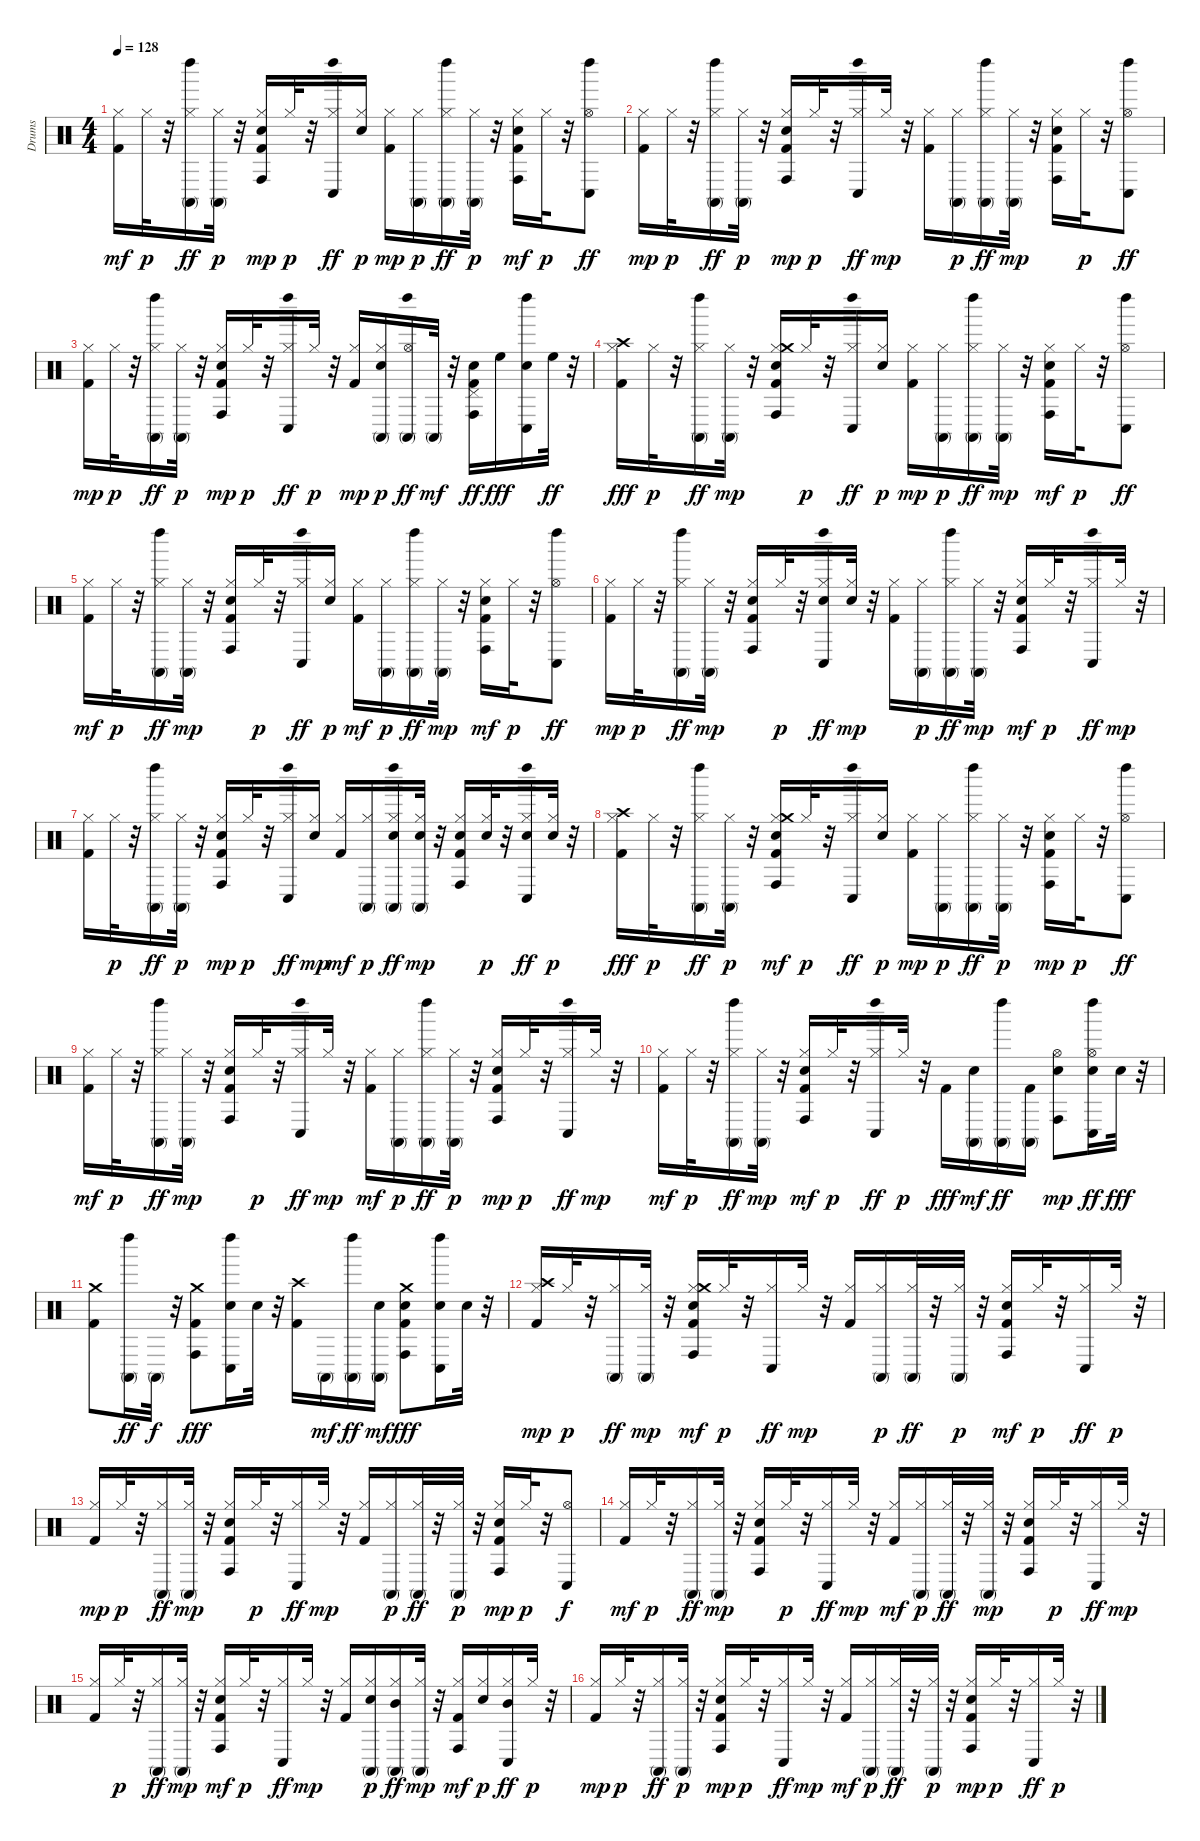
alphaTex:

\track ("Drums" "Drums") {instrument percussion}
\staff {score}
\articulation defaults
\ts (4 4)
\tempo 128
\clef neutral
\ks c
("Kick (hit) 2" "Hi-Hat (closed)").16{dy mf} "Hi-Hat (closed)".32{dy p} r.32 ("Conga high (mute)" "Left Maraca (hit)" "Hi-Hat (closed)").16{dy ff} ("Conga high (mute)" "Hi-Hat (closed)").32{dy p} r.32 ("Kick (hit) 2" "Conga high (hit)" "Electric Snare (hit)" "Hi-Hat (closed)").16{dy mp} "Hi-Hat (closed)".32{dy p} r.32 ("Conga low (hit)" "Left Maraca (hit)" "Hi-Hat (closed)").16{dy ff} ("Electric Snare (hit)" "Hi-Hat (closed)").16{dy p} ("Kick (hit) 2" "Hi-Hat (closed)").16{dy mp} ("Conga high (mute)" "Hi-Hat (closed)").16{dy p} ("Conga high (mute)" "Left Maraca (hit)" "Hi-Hat (closed)").16{dy ff} ("Conga high (mute)" "Hi-Hat (closed)").32{dy p} r.32 ("Kick (hit) 2" "Conga high (hit)" "Electric Snare (hit)" "Hi-Hat (closed)").16{dy mf} "Hi-Hat (closed)".32{dy p} r.32 ("Conga low (hit)" "Left Maraca (hit)" "Hi-Hat (open)").8{dy ff} |
("Kick (hit) 2" "Hi-Hat (closed)").16{dy mp} "Hi-Hat (closed)".32{dy p} r.32 ("Conga high (mute)" "Left Maraca (hit)" "Hi-Hat (closed)").16{dy ff} ("Conga high (mute)" "Hi-Hat (closed)").32{dy p} r.32 ("Kick (hit) 2" "Conga high (hit)" "Electric Snare (hit)" "Hi-Hat (closed)").16{dy mp} "Hi-Hat (closed)".32{dy p} r.32 ("Conga low (hit)" "Left Maraca (hit)" "Hi-Hat (closed)").16{dy ff} "Hi-Hat (closed)".32{dy mp} r.32 ("Kick (hit) 2" "Hi-Hat (closed)").16 ("Conga high (mute)" "Hi-Hat (closed)").16{dy p} ("Conga high (mute)" "Left Maraca (hit)" "Hi-Hat (closed)").16{dy ff} ("Conga high (mute)" "Hi-Hat (closed)").32{dy mp} r.32 ("Kick (hit) 2" "Conga high (hit)" "Electric Snare (hit)" "Hi-Hat (closed)").16 "Hi-Hat (closed)".32{dy p} r.32 ("Conga low (hit)" "Left Maraca (hit)" "Hi-Hat (open)").8{dy ff} |
("Kick (hit) 2" "Hi-Hat (closed)").16{dy mp} "Hi-Hat (closed)".32{dy p} r.32 ("Conga high (mute)" "Left Maraca (hit)" "Hi-Hat (closed)").16{dy ff} ("Conga high (mute)" "Hi-Hat (closed)").32{dy p} r.32 ("Kick (hit) 2" "Conga high (hit)" "Electric Snare (hit)" "Hi-Hat (closed)").16{dy mp} "Hi-Hat (closed)".32{dy p} r.32 ("Conga low (hit)" "Left Maraca (hit)" "Hi-Hat (closed)").16{dy ff} "Hi-Hat (closed)".32{dy p} r.32 ("Kick (hit) 2" "Hi-Hat (closed)").16{dy mp} ("Conga high (mute)" "Electric Snare (hit)" "Hi-Hat (closed)").16{dy p} ("Conga high (mute)" "Left Maraca (hit)" "Hi-Hat (open)").16{dy ff} "Conga high (mute)".32{dy mf} r.32 ("Kick (hit) 2" "Conga high (hit)" "Pedal Hi-Hat (hit)" "Electric Snare (hit)").16{dy ff} "High Floor Tom (hit)".16{dy fff} ("Conga low (hit)" "Left Maraca (hit)" "Electric Snare (hit)").16 "High Floor Tom (hit)".32{dy ff} r.32 |
("Kick (hit) 2" "Hi-Hat (closed)" "Crash high (hit)").16{dy fff} "Hi-Hat (closed)".32{dy p} r.32 ("Conga high (mute)" "Left Maraca (hit)" "Hi-Hat (closed)").16{dy ff} ("Conga high (mute)" "Hi-Hat (closed)").32{dy mp} r.32 ("Kick (hit) 2" "Conga high (hit)" "Electric Snare (hit)" "Hi-Hat (closed)" "Crash medium (hit)").16 "Hi-Hat (closed)".32{dy p} r.32 ("Conga low (hit)" "Left Maraca (hit)" "Hi-Hat (closed)").16{dy ff} ("Electric Snare (hit)" "Hi-Hat (closed)").16{dy p} ("Kick (hit) 2" "Hi-Hat (closed)").16{dy mp} ("Conga high (mute)" "Hi-Hat (closed)").16{dy p} ("Conga high (mute)" "Left Maraca (hit)" "Hi-Hat (closed)").16{dy ff} ("Conga high (mute)" "Hi-Hat (closed)").32{dy mp} r.32 ("Kick (hit) 2" "Conga high (hit)" "Electric Snare (hit)" "Hi-Hat (closed)").16{dy mf} "Hi-Hat (closed)".32{dy p} r.32 ("Conga low (hit)" "Left Maraca (hit)" "Hi-Hat (open)").8{dy ff} |
("Kick (hit) 2" "Hi-Hat (closed)").16{dy mf} "Hi-Hat (closed)".32{dy p} r.32 ("Conga high (mute)" "Left Maraca (hit)" "Hi-Hat (closed)").16{dy ff} ("Conga high (mute)" "Hi-Hat (closed)").32{dy mp} r.32 ("Kick (hit) 2" "Conga high (hit)" "Electric Snare (hit)" "Hi-Hat (closed)").16 "Hi-Hat (closed)".32{dy p} r.32 ("Conga low (hit)" "Left Maraca (hit)" "Hi-Hat (closed)").16{dy ff} ("Electric Snare (hit)" "Hi-Hat (closed)").16{dy p} ("Kick (hit) 2" "Hi-Hat (closed)").16{dy mf} ("Conga high (mute)" "Hi-Hat (closed)").16{dy p} ("Conga high (mute)" "Left Maraca (hit)" "Hi-Hat (closed)").16{dy ff} ("Conga high (mute)" "Hi-Hat (closed)").32{dy mp} r.32 ("Kick (hit) 2" "Conga high (hit)" "Electric Snare (hit)" "Hi-Hat (closed)").16{dy mf} "Hi-Hat (closed)".32{dy p} r.32 ("Conga low (hit)" "Left Maraca (hit)" "Hi-Hat (open)").8{dy ff} |
("Kick (hit) 2" "Hi-Hat (closed)").16{dy mp} "Hi-Hat (closed)".32{dy p} r.32 ("Conga high (mute)" "Left Maraca (hit)" "Hi-Hat (closed)").16{dy ff} ("Conga high (mute)" "Hi-Hat (closed)").32{dy mp} r.32 ("Kick (hit) 2" "Conga high (hit)" "Electric Snare (hit)" "Hi-Hat (closed)").16 "Hi-Hat (closed)".32{dy p} r.32 ("Conga low (hit)" "Left Maraca (hit)" "Electric Snare (hit)" "Hi-Hat (closed)").16{dy ff} ("Electric Snare (hit)" "Hi-Hat (closed)").32{dy mp} r.32 ("Kick (hit) 2" "Hi-Hat (closed)").16 ("Conga high (mute)" "Hi-Hat (closed)").16{dy p} ("Conga high (mute)" "Left Maraca (hit)" "Hi-Hat (closed)").16{dy ff} ("Conga high (mute)" "Hi-Hat (closed)").32{dy mp} r.32 ("Kick (hit) 2" "Conga high (hit)" "Electric Snare (hit)" "Hi-Hat (closed)").16{dy mf} "Hi-Hat (closed)".32{dy p} r.32 ("Conga low (hit)" "Left Maraca (hit)" "Hi-Hat (closed)").16{dy ff} "Hi-Hat (closed)".32{dy mp} r.32 |
("Kick (hit) 2" "Hi-Hat (closed)").16 "Hi-Hat (closed)".32{dy p} r.32 ("Conga high (mute)" "Left Maraca (hit)" "Hi-Hat (closed)").16{dy ff} ("Conga high (mute)" "Hi-Hat (closed)").32{dy p} r.32 ("Kick (hit) 2" "Conga high (hit)" "Electric Snare (hit)" "Hi-Hat (closed)").16{dy mp} "Hi-Hat (closed)".32{dy p} r.32 ("Conga low (hit)" "Left Maraca (hit)" "Hi-Hat (closed)").16{dy ff} ("Electric Snare (hit)" "Hi-Hat (closed)").16{dy mp} ("Kick (hit) 2" "Hi-Hat (closed)").16{dy mf} ("Conga high (mute)" "Hi-Hat (closed)").16{dy p} ("Conga high (mute)" "Left Maraca (hit)" "Electric Snare (hit)" "Hi-Hat (closed)").16{dy ff} ("Conga high (mute)" "Electric Snare (hit)" "Hi-Hat (closed)").32{dy mp} r.32 ("Kick (hit) 2" "Conga high (hit)" "Electric Snare (hit)" "Hi-Hat (closed)").16 ("Electric Snare (hit)" "Hi-Hat (closed)").32{dy p} r.32 ("Conga low (hit)" "Left Maraca (hit)" "Electric Snare (hit)" "Hi-Hat (closed)").16{dy ff} ("Electric Snare (hit)" "Hi-Hat (closed)").32{dy p} r.32 |
("Kick (hit) 2" "Hi-Hat (closed)" "Crash high (hit)").16{dy fff} "Hi-Hat (closed)".32{dy p} r.32 ("Conga high (mute)" "Left Maraca (hit)" "Hi-Hat (closed)").16{dy ff} ("Conga high (mute)" "Hi-Hat (closed)").32{dy p} r.32 ("Kick (hit) 2" "Conga high (hit)" "Electric Snare (hit)" "Hi-Hat (closed)" "Crash medium (hit)").16{dy mf} "Hi-Hat (closed)".32{dy p} r.32 ("Conga low (hit)" "Left Maraca (hit)" "Hi-Hat (closed)").16{dy ff} ("Electric Snare (hit)" "Hi-Hat (closed)").16{dy p} ("Kick (hit) 2" "Hi-Hat (closed)").16{dy mp} ("Conga high (mute)" "Hi-Hat (closed)").16{dy p} ("Conga high (mute)" "Left Maraca (hit)" "Hi-Hat (closed)").16{dy ff} ("Conga high (mute)" "Hi-Hat (closed)").32{dy p} r.32 ("Kick (hit) 2" "Conga high (hit)" "Electric Snare (hit)" "Hi-Hat (closed)").16{dy mp} "Hi-Hat (closed)".32{dy p} r.32 ("Conga low (hit)" "Left Maraca (hit)" "Hi-Hat (open)").8{dy ff} |
("Kick (hit) 2" "Hi-Hat (closed)").16{dy mf} "Hi-Hat (closed)".32{dy p} r.32 ("Conga high (mute)" "Left Maraca (hit)" "Hi-Hat (closed)").16{dy ff} ("Conga high (mute)" "Hi-Hat (closed)").32{dy mp} r.32 ("Kick (hit) 2" "Conga high (hit)" "Electric Snare (hit)" "Hi-Hat (closed)").16 "Hi-Hat (closed)".32{dy p} r.32 ("Conga low (hit)" "Left Maraca (hit)" "Hi-Hat (closed)").16{dy ff} "Hi-Hat (closed)".32{dy mp} r.32 ("Kick (hit) 2" "Hi-Hat (closed)").16{dy mf} ("Conga high (mute)" "Hi-Hat (closed)").16{dy p} ("Conga high (mute)" "Left Maraca (hit)" "Hi-Hat (closed)").16{dy ff} ("Conga high (mute)" "Hi-Hat (closed)").32{dy p} r.32 ("Kick (hit) 2" "Conga high (hit)" "Electric Snare (hit)" "Hi-Hat (closed)").16{dy mp} "Hi-Hat (closed)".32{dy p} r.32 ("Conga low (hit)" "Left Maraca (hit)" "Hi-Hat (closed)").16{dy ff} "Hi-Hat (closed)".32{dy mp} r.32 |
("Kick (hit) 2" "Hi-Hat (closed)").16{dy mf} "Hi-Hat (closed)".32{dy p} r.32 ("Conga high (mute)" "Left Maraca (hit)" "Hi-Hat (closed)").16{dy ff} ("Conga high (mute)" "Hi-Hat (closed)").32{dy mp} r.32 ("Kick (hit) 2" "Conga high (hit)" "Electric Snare (hit)" "Hi-Hat (closed)").16{dy mf} "Hi-Hat (closed)".32{dy p} r.32 ("Conga low (hit)" "Left Maraca (hit)" "Hi-Hat (closed)").16{dy ff} "Hi-Hat (closed)".32{dy p} r.32 "Kick (hit) 2".16{dy fff} ("Conga high (mute)" "Electric Snare (hit)").16{dy mf} ("Conga high (mute)" "Left Maraca (hit)").16{dy ff} ("Kick (hit) 2" "Conga high (mute)").16 ("Conga high (hit)" "Electric Snare (hit)" "Hi-Hat (open)").8{dy mp} ("Conga low (hit)" "Left Maraca (hit)" "Electric Snare (hit)" "Hi-Hat (open)").16{dy ff} "Electric Snare (hit)".32{dy fff} r.32 |
("Kick (hit) 2" "Crash medium (hit)").8 ("Conga high (mute)" "Left Maraca (hit)").16{dy ff} "Conga high (mute)".32{dy f} r.32 ("Kick (hit) 2" "Conga high (hit)" "Crash medium (hit)").8{dy fff} ("Conga low (hit)" "Left Maraca (hit)" "Electric Snare (hit)").16 "Electric Snare (hit)".32 r.32 ("Kick (hit) 2" "Crash high (hit)").16 "Conga high (mute)".16{dy mf} ("Conga high (mute)" "Left Maraca (hit)").16{dy ff} ("Conga high (mute)" "Electric Snare (hit)").16{dy mf} ("Kick (hit) 2" "Conga high (hit)" "Electric Snare (hit)" "Crash medium (hit)").8{dy fff} ("Conga low (hit)" "Left Maraca (hit)" "Electric Snare (hit)").16 "Electric Snare (hit)".32 r.32 |
("Kick (hit) 2" "Hi-Hat (closed)" "Crash high (hit)").16{dy mp} "Hi-Hat (closed)".32{dy p} r.32 ("Conga high (mute)" "Hi-Hat (closed)").16{dy ff} ("Conga high (mute)" "Hi-Hat (closed)").32{dy mp} r.32 ("Kick (hit) 2" "Conga high (hit)" "Electric Snare (hit)" "Hi-Hat (closed)" "Crash medium (hit)").16{dy mf} "Hi-Hat (closed)".32{dy p} r.32 ("Conga low (hit)" "Hi-Hat (closed)").16{dy ff} "Hi-Hat (closed)".32{dy mp} r.32 ("Kick (hit) 2" "Hi-Hat (closed)").16 ("Conga high (mute)" "Hi-Hat (closed)").16{dy p} ("Conga high (mute)" "Hi-Hat (closed)").32{dy ff} r.32 ("Conga high (mute)" "Hi-Hat (closed)").32{dy p} r.32 ("Kick (hit) 2" "Conga high (hit)" "Electric Snare (hit)" "Hi-Hat (closed)").16{dy mf} "Hi-Hat (closed)".32{dy p} r.32 ("Conga low (hit)" "Hi-Hat (closed)").16{dy ff} "Hi-Hat (closed)".32{dy p} r.32 |
("Kick (hit) 2" "Hi-Hat (closed)").16{dy mp} "Hi-Hat (closed)".32{dy p} r.32 ("Conga high (mute)" "Hi-Hat (closed)").16{dy ff} ("Conga high (mute)" "Hi-Hat (closed)").32{dy mp} r.32 ("Kick (hit) 2" "Conga high (hit)" "Electric Snare (hit)" "Hi-Hat (closed)").16 "Hi-Hat (closed)".32{dy p} r.32 ("Conga low (hit)" "Hi-Hat (closed)").16{dy ff} "Hi-Hat (closed)".32{dy mp} r.32 ("Kick (hit) 2" "Hi-Hat (closed)").16 ("Conga high (mute)" "Hi-Hat (closed)").16{dy p} ("Conga high (mute)" "Hi-Hat (closed)").32{dy ff} r.32 ("Conga high (mute)" "Hi-Hat (closed)").32{dy p} r.32 ("Kick (hit) 2" "Conga high (hit)" "Electric Snare (hit)" "Hi-Hat (closed)").16{dy mp} "Hi-Hat (closed)".32{dy p} r.32 ("Conga low (hit)" "Hi-Hat (open)").8{dy f} |
("Kick (hit) 2" "Hi-Hat (closed)").16{dy mf} "Hi-Hat (closed)".32{dy p} r.32 ("Conga high (mute)" "Hi-Hat (closed)").16{dy ff} ("Conga high (mute)" "Hi-Hat (closed)").32{dy mp} r.32 ("Kick (hit) 2" "Conga high (hit)" "Electric Snare (hit)" "Hi-Hat (closed)").16 "Hi-Hat (closed)".32{dy p} r.32 ("Conga low (hit)" "Hi-Hat (closed)").16{dy ff} "Hi-Hat (closed)".32{dy mp} r.32 ("Kick (hit) 2" "Hi-Hat (closed)").16{dy mf} ("Conga high (mute)" "Hi-Hat (closed)").16{dy p} ("Conga high (mute)" "Hi-Hat (closed)").32{dy ff} r.32 ("Conga high (mute)" "Hi-Hat (closed)").32{dy mp} r.32 ("Kick (hit) 2" "Conga high (hit)" "Electric Snare (hit)" "Hi-Hat (closed)").16 "Hi-Hat (closed)".32{dy p} r.32 ("Conga low (hit)" "Hi-Hat (closed)").16{dy ff} "Hi-Hat (closed)".32{dy mp} r.32 |
("Kick (hit) 2" "Hi-Hat (closed)").16 "Hi-Hat (closed)".32{dy p} r.32 ("Conga high (mute)" "Hi-Hat (closed)").16{dy ff} ("Conga high (mute)" "Hi-Hat (closed)").32{dy mp} r.32 ("Kick (hit) 2" "Conga high (hit)" "Electric Snare (hit)" "Hi-Hat (closed)").16{dy mf} "Hi-Hat (closed)".32{dy p} r.32 ("Conga low (hit)" "Hi-Hat (closed)").16{dy ff} "Hi-Hat (closed)".32{dy mp} r.32 ("Kick (hit) 2" "Hi-Hat (closed)").16 ("Conga high (mute)" "Electric Snare (hit)" "Hi-Hat (closed)").16{dy p} ("Conga high (mute)" "Mid Tom (hit)" "Hi-Hat (closed)").16{dy ff} ("Conga high (mute)" "Hi-Hat (closed)").32{dy mp} r.32 ("Kick (hit) 2" "Conga high (hit)" "Hi-Hat (closed)").16{dy mf} ("Electric Snare (hit)" "Hi-Hat (closed)").16{dy p} ("Conga low (hit)" "Mid Tom (hit)" "Hi-Hat (closed)").16{dy ff} "Hi-Hat (closed)".32{dy p} r.32 |
("Kick (hit) 2" "Hi-Hat (closed)").16{dy mp} "Hi-Hat (closed)".32{dy p} r.32 ("Conga high (mute)" "Hi-Hat (closed)").16{dy ff} ("Conga high (mute)" "Hi-Hat (closed)").32{dy p} r.32 ("Kick (hit) 2" "Conga high (hit)" "Electric Snare (hit)" "Hi-Hat (closed)").16{dy mp} "Hi-Hat (closed)".32{dy p} r.32 ("Conga low (hit)" "Hi-Hat (closed)").16{dy ff} "Hi-Hat (closed)".32{dy mp} r.32 ("Kick (hit) 2" "Hi-Hat (closed)").16{dy mf} ("Conga high (mute)" "Hi-Hat (closed)").16{dy p} ("Conga high (mute)" "Hi-Hat (closed)").32{dy ff} r.32 ("Conga high (mute)" "Hi-Hat (closed)").32{dy p} r.32 ("Kick (hit) 2" "Conga high (hit)" "Electric Snare (hit)" "Hi-Hat (closed)").16{dy mp} "Hi-Hat (closed)".32{dy p} r.32 ("Conga low (hit)" "Hi-Hat (closed)").16{dy ff} "Hi-Hat (closed)".32{dy p} r.32
